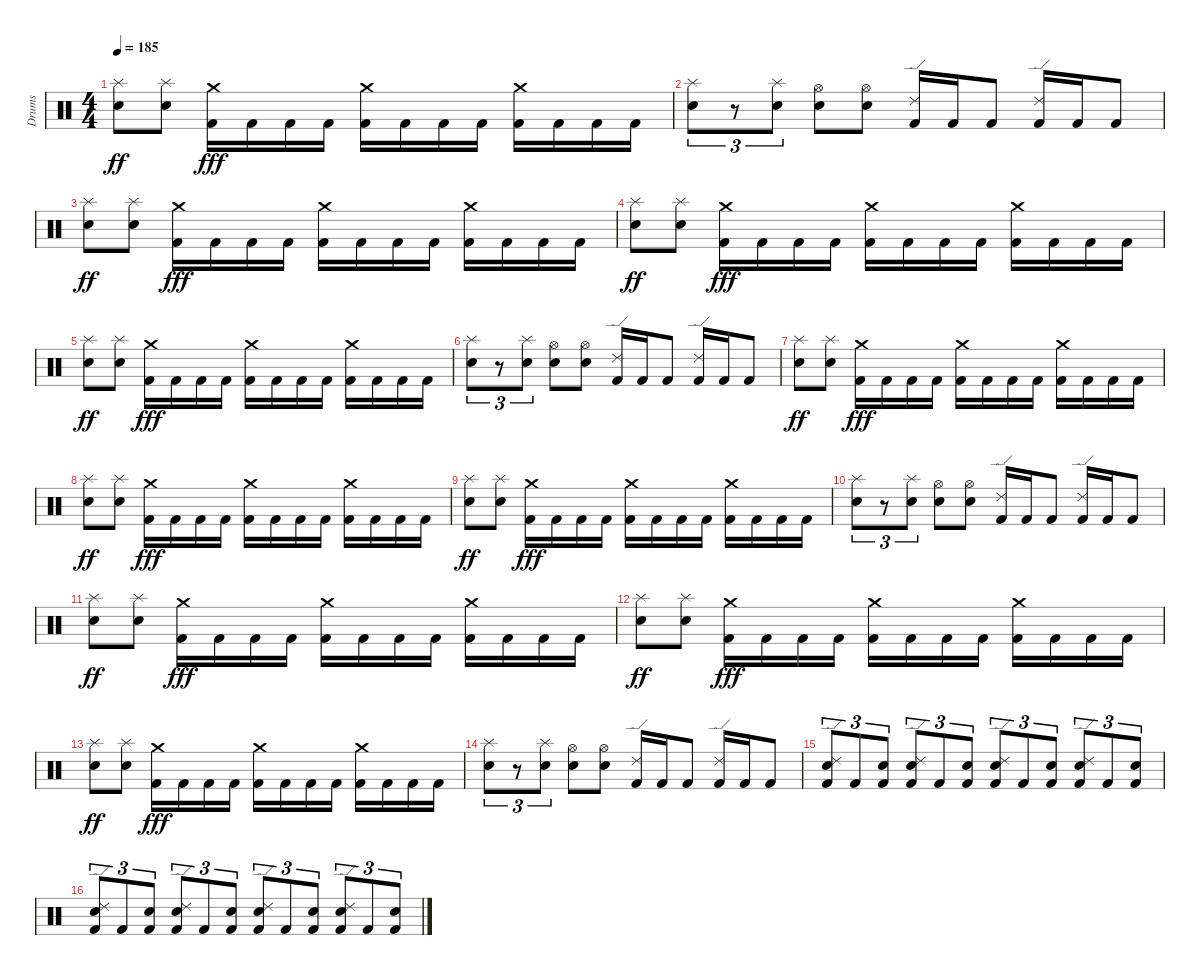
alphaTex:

\track ("Drums" "Drums") {instrument percussion}
\staff {score}
\articulation defaults
\ts (4 4)
\tempo 185
\clef neutral
\ks c
("Splash (hit)" "Electric Snare (hit)").8{dy ff} ("Splash (hit)" "Electric Snare (hit)").8 ("Kick (hit) 2" "Crash medium (hit)").16{dy fff} "Kick (hit) 2".16 "Kick (hit) 2".16 "Kick (hit) 2".16 ("Kick (hit) 2" "Crash medium (hit)").16 "Kick (hit) 2".16 "Kick (hit) 2".16 "Kick (hit) 2".16 ("Kick (hit) 2" "Crash medium (hit)").16 "Kick (hit) 2".16 "Kick (hit) 2".16 "Kick (hit) 2".16 |
("Electric Snare (hit)" "Splash (hit)").8{tu (3 2)} r.8{tu (3 2)} ("Electric Snare (hit)" "Splash (hit)").8{tu (3 2)} ("Snare (hit) 2" "Hi-Hat (open)").8 ("Snare (hit) 2" "Hi-Hat (open)").8 ("Kick (hit) 2" "Ride (edge) 2").16 "Kick (hit) 2".16 "Kick (hit) 2".8 ("Kick (hit) 2" "Ride (edge) 2").16 "Kick (hit) 2".16 "Kick (hit) 2".8 |
("Splash (hit)" "Electric Snare (hit)").8{dy ff} ("Splash (hit)" "Electric Snare (hit)").8 ("Kick (hit) 2" "Crash medium (hit)").16{dy fff} "Kick (hit) 2".16 "Kick (hit) 2".16 "Kick (hit) 2".16 ("Kick (hit) 2" "Crash medium (hit)").16 "Kick (hit) 2".16 "Kick (hit) 2".16 "Kick (hit) 2".16 ("Kick (hit) 2" "Crash medium (hit)").16 "Kick (hit) 2".16 "Kick (hit) 2".16 "Kick (hit) 2".16 |
("Splash (hit)" "Electric Snare (hit)").8{dy ff} ("Splash (hit)" "Electric Snare (hit)").8 ("Kick (hit) 2" "Crash medium (hit)").16{dy fff} "Kick (hit) 2".16 "Kick (hit) 2".16 "Kick (hit) 2".16 ("Kick (hit) 2" "Crash medium (hit)").16 "Kick (hit) 2".16 "Kick (hit) 2".16 "Kick (hit) 2".16 ("Kick (hit) 2" "Crash medium (hit)").16 "Kick (hit) 2".16 "Kick (hit) 2".16 "Kick (hit) 2".16 |
("Splash (hit)" "Electric Snare (hit)").8{dy ff} ("Splash (hit)" "Electric Snare (hit)").8 ("Kick (hit) 2" "Crash medium (hit)").16{dy fff} "Kick (hit) 2".16 "Kick (hit) 2".16 "Kick (hit) 2".16 ("Kick (hit) 2" "Crash medium (hit)").16 "Kick (hit) 2".16 "Kick (hit) 2".16 "Kick (hit) 2".16 ("Kick (hit) 2" "Crash medium (hit)").16 "Kick (hit) 2".16 "Kick (hit) 2".16 "Kick (hit) 2".16 |
("Electric Snare (hit)" "Splash (hit)").8{tu (3 2)} r.8{tu (3 2)} ("Electric Snare (hit)" "Splash (hit)").8{tu (3 2)} ("Snare (hit) 2" "Hi-Hat (open)").8 ("Snare (hit) 2" "Hi-Hat (open)").8 ("Kick (hit) 2" "Ride (edge) 2").16 "Kick (hit) 2".16 "Kick (hit) 2".8 ("Kick (hit) 2" "Ride (edge) 2").16 "Kick (hit) 2".16 "Kick (hit) 2".8 |
("Splash (hit)" "Electric Snare (hit)").8{dy ff} ("Splash (hit)" "Electric Snare (hit)").8 ("Kick (hit) 2" "Crash medium (hit)").16{dy fff} "Kick (hit) 2".16 "Kick (hit) 2".16 "Kick (hit) 2".16 ("Kick (hit) 2" "Crash medium (hit)").16 "Kick (hit) 2".16 "Kick (hit) 2".16 "Kick (hit) 2".16 ("Kick (hit) 2" "Crash medium (hit)").16 "Kick (hit) 2".16 "Kick (hit) 2".16 "Kick (hit) 2".16 |
("Splash (hit)" "Electric Snare (hit)").8{dy ff} ("Splash (hit)" "Electric Snare (hit)").8 ("Kick (hit) 2" "Crash medium (hit)").16{dy fff} "Kick (hit) 2".16 "Kick (hit) 2".16 "Kick (hit) 2".16 ("Kick (hit) 2" "Crash medium (hit)").16 "Kick (hit) 2".16 "Kick (hit) 2".16 "Kick (hit) 2".16 ("Kick (hit) 2" "Crash medium (hit)").16 "Kick (hit) 2".16 "Kick (hit) 2".16 "Kick (hit) 2".16 |
("Splash (hit)" "Electric Snare (hit)").8{dy ff} ("Splash (hit)" "Electric Snare (hit)").8 ("Kick (hit) 2" "Crash medium (hit)").16{dy fff} "Kick (hit) 2".16 "Kick (hit) 2".16 "Kick (hit) 2".16 ("Kick (hit) 2" "Crash medium (hit)").16 "Kick (hit) 2".16 "Kick (hit) 2".16 "Kick (hit) 2".16 ("Kick (hit) 2" "Crash medium (hit)").16 "Kick (hit) 2".16 "Kick (hit) 2".16 "Kick (hit) 2".16 |
("Electric Snare (hit)" "Splash (hit)").8{tu (3 2)} r.8{tu (3 2)} ("Electric Snare (hit)" "Splash (hit)").8{tu (3 2)} ("Snare (hit) 2" "Hi-Hat (open)").8 ("Snare (hit) 2" "Hi-Hat (open)").8 ("Kick (hit) 2" "Ride (edge) 2").16 "Kick (hit) 2".16 "Kick (hit) 2".8 ("Kick (hit) 2" "Ride (edge) 2").16 "Kick (hit) 2".16 "Kick (hit) 2".8 |
("Splash (hit)" "Electric Snare (hit)").8{dy ff} ("Splash (hit)" "Electric Snare (hit)").8 ("Kick (hit) 2" "Crash medium (hit)").16{dy fff} "Kick (hit) 2".16 "Kick (hit) 2".16 "Kick (hit) 2".16 ("Kick (hit) 2" "Crash medium (hit)").16 "Kick (hit) 2".16 "Kick (hit) 2".16 "Kick (hit) 2".16 ("Kick (hit) 2" "Crash medium (hit)").16 "Kick (hit) 2".16 "Kick (hit) 2".16 "Kick (hit) 2".16 |
("Splash (hit)" "Electric Snare (hit)").8{dy ff} ("Splash (hit)" "Electric Snare (hit)").8 ("Kick (hit) 2" "Crash medium (hit)").16{dy fff} "Kick (hit) 2".16 "Kick (hit) 2".16 "Kick (hit) 2".16 ("Kick (hit) 2" "Crash medium (hit)").16 "Kick (hit) 2".16 "Kick (hit) 2".16 "Kick (hit) 2".16 ("Kick (hit) 2" "Crash medium (hit)").16 "Kick (hit) 2".16 "Kick (hit) 2".16 "Kick (hit) 2".16 |
("Splash (hit)" "Electric Snare (hit)").8{dy ff} ("Splash (hit)" "Electric Snare (hit)").8 ("Kick (hit) 2" "Crash medium (hit)").16{dy fff} "Kick (hit) 2".16 "Kick (hit) 2".16 "Kick (hit) 2".16 ("Kick (hit) 2" "Crash medium (hit)").16 "Kick (hit) 2".16 "Kick (hit) 2".16 "Kick (hit) 2".16 ("Kick (hit) 2" "Crash medium (hit)").16 "Kick (hit) 2".16 "Kick (hit) 2".16 "Kick (hit) 2".16 |
("Electric Snare (hit)" "Splash (hit)").8{tu (3 2)} r.8{tu (3 2)} ("Electric Snare (hit)" "Splash (hit)").8{tu (3 2)} ("Snare (hit) 2" "Hi-Hat (open)").8 ("Snare (hit) 2" "Hi-Hat (open)").8 ("Kick (hit) 2" "Ride (edge) 2").16 "Kick (hit) 2".16 "Kick (hit) 2".8 ("Kick (hit) 2" "Ride (edge) 2").16 "Kick (hit) 2".16 "Kick (hit) 2".8 |
("Ride (edge) 2" "Electric Snare (hit)" "Kick (hit) 2").8{tu (3 2)} "Kick (hit) 2".8{tu (3 2)} ("Snare (hit) 2" "Kick (hit) 2").8{tu (3 2)} ("Ride (edge) 2" "Electric Snare (hit)" "Kick (hit) 2").8{tu (3 2)} "Kick (hit) 2".8{tu (3 2)} ("Snare (hit) 2" "Kick (hit) 2").8{tu (3 2)} ("Ride (edge) 2" "Electric Snare (hit)" "Kick (hit) 2").8{tu (3 2)} "Kick (hit) 2".8{tu (3 2)} ("Snare (hit) 2" "Kick (hit) 2").8{tu (3 2)} ("Ride (edge) 2" "Electric Snare (hit)" "Kick (hit) 2").8{tu (3 2)} "Kick (hit) 2".8{tu (3 2)} ("Snare (hit) 2" "Kick (hit) 2").8{tu (3 2)} |
("Ride (edge) 2" "Electric Snare (hit)" "Kick (hit) 2").8{tu (3 2)} "Kick (hit) 2".8{tu (3 2)} ("Snare (hit) 2" "Kick (hit) 2").8{tu (3 2)} ("Ride (edge) 2" "Electric Snare (hit)" "Kick (hit) 2").8{tu (3 2)} "Kick (hit) 2".8{tu (3 2)} ("Snare (hit) 2" "Kick (hit) 2").8{tu (3 2)} ("Ride (edge) 2" "Electric Snare (hit)" "Kick (hit) 2").8{tu (3 2)} "Kick (hit) 2".8{tu (3 2)} ("Snare (hit) 2" "Kick (hit) 2").8{tu (3 2)} ("Ride (edge) 2" "Electric Snare (hit)" "Kick (hit) 2").8{tu (3 2)} "Kick (hit) 2".8{tu (3 2)} ("Snare (hit) 2" "Kick (hit) 2").8{tu (3 2)}
